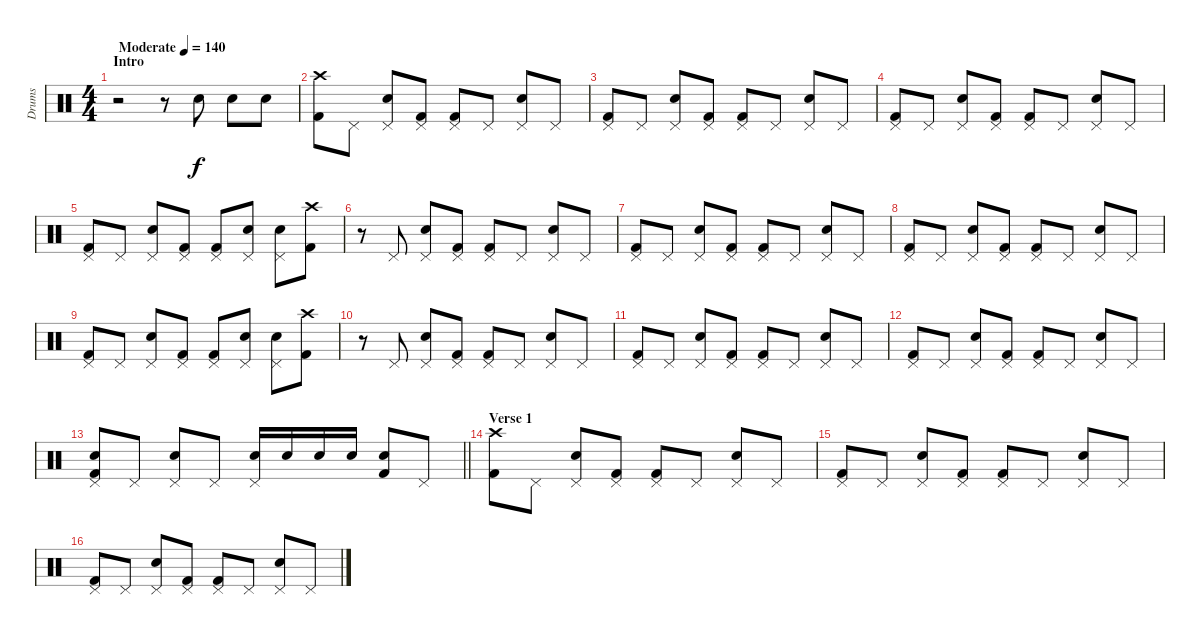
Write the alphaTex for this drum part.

\track ("Drums" "Drums") {instrument percussion}
\staff {score}
\articulation defaults
\ts (4 4)
\section ("" "Intro")
\tempo (140 "Moderate")
\clef neutral
\ks c
r.2{dy f} r.8 "Electric Snare (hit)".8 "Electric Snare (hit)".8 "Electric Snare (hit)".8 |
("Crash high (hit)" "Kick (hit) 2").8 "Pedal Hi-Hat (hit)".8 ("Pedal Hi-Hat (hit)" "Electric Snare (hit)").8 ("Pedal Hi-Hat (hit)" "Kick (hit) 2").8 ("Pedal Hi-Hat (hit)" "Kick (hit) 2").8 "Pedal Hi-Hat (hit)".8 ("Pedal Hi-Hat (hit)" "Electric Snare (hit)").8 "Pedal Hi-Hat (hit)".8 |
("Pedal Hi-Hat (hit)" "Kick (hit) 2").8 "Pedal Hi-Hat (hit)".8 ("Pedal Hi-Hat (hit)" "Electric Snare (hit)").8 ("Pedal Hi-Hat (hit)" "Kick (hit) 2").8 ("Pedal Hi-Hat (hit)" "Kick (hit) 2").8 "Pedal Hi-Hat (hit)".8 ("Pedal Hi-Hat (hit)" "Electric Snare (hit)").8 "Pedal Hi-Hat (hit)".8 |
("Pedal Hi-Hat (hit)" "Kick (hit) 2").8 "Pedal Hi-Hat (hit)".8 ("Pedal Hi-Hat (hit)" "Electric Snare (hit)").8 ("Pedal Hi-Hat (hit)" "Kick (hit) 2").8 ("Pedal Hi-Hat (hit)" "Kick (hit) 2").8 "Pedal Hi-Hat (hit)".8 ("Pedal Hi-Hat (hit)" "Electric Snare (hit)").8 "Pedal Hi-Hat (hit)".8 |
("Pedal Hi-Hat (hit)" "Kick (hit) 2").8 "Pedal Hi-Hat (hit)".8 ("Pedal Hi-Hat (hit)" "Electric Snare (hit)").8 ("Pedal Hi-Hat (hit)" "Kick (hit) 2").8 ("Pedal Hi-Hat (hit)" "Kick (hit) 2").8 ("Pedal Hi-Hat (hit)" "Electric Snare (hit)").8 ("Pedal Hi-Hat (hit)" "Electric Snare (hit)").8 ("Crash high (hit)" "Kick (hit) 2").8 |
r.8 "Pedal Hi-Hat (hit)".8 ("Pedal Hi-Hat (hit)" "Electric Snare (hit)").8 ("Pedal Hi-Hat (hit)" "Kick (hit) 2").8 ("Pedal Hi-Hat (hit)" "Kick (hit) 2").8 "Pedal Hi-Hat (hit)".8 ("Pedal Hi-Hat (hit)" "Electric Snare (hit)").8 "Pedal Hi-Hat (hit)".8 |
("Pedal Hi-Hat (hit)" "Kick (hit) 2").8 "Pedal Hi-Hat (hit)".8 ("Pedal Hi-Hat (hit)" "Electric Snare (hit)").8 ("Pedal Hi-Hat (hit)" "Kick (hit) 2").8 ("Pedal Hi-Hat (hit)" "Kick (hit) 2").8 "Pedal Hi-Hat (hit)".8 ("Pedal Hi-Hat (hit)" "Electric Snare (hit)").8 "Pedal Hi-Hat (hit)".8 |
("Pedal Hi-Hat (hit)" "Kick (hit) 2").8 "Pedal Hi-Hat (hit)".8 ("Pedal Hi-Hat (hit)" "Electric Snare (hit)").8 ("Pedal Hi-Hat (hit)" "Kick (hit) 2").8 ("Pedal Hi-Hat (hit)" "Kick (hit) 2").8 "Pedal Hi-Hat (hit)".8 ("Pedal Hi-Hat (hit)" "Electric Snare (hit)").8 "Pedal Hi-Hat (hit)".8 |
("Pedal Hi-Hat (hit)" "Kick (hit) 2").8 "Pedal Hi-Hat (hit)".8 ("Pedal Hi-Hat (hit)" "Electric Snare (hit)").8 ("Pedal Hi-Hat (hit)" "Kick (hit) 2").8 ("Pedal Hi-Hat (hit)" "Kick (hit) 2").8 ("Pedal Hi-Hat (hit)" "Electric Snare (hit)").8 ("Pedal Hi-Hat (hit)" "Electric Snare (hit)").8 ("Crash high (hit)" "Kick (hit) 2").8 |
r.8 "Pedal Hi-Hat (hit)".8 ("Pedal Hi-Hat (hit)" "Electric Snare (hit)").8 ("Pedal Hi-Hat (hit)" "Kick (hit) 2").8 ("Pedal Hi-Hat (hit)" "Kick (hit) 2").8 "Pedal Hi-Hat (hit)".8 ("Pedal Hi-Hat (hit)" "Electric Snare (hit)").8 "Pedal Hi-Hat (hit)".8 |
("Pedal Hi-Hat (hit)" "Kick (hit) 2").8 "Pedal Hi-Hat (hit)".8 ("Pedal Hi-Hat (hit)" "Electric Snare (hit)").8 ("Pedal Hi-Hat (hit)" "Kick (hit) 2").8 ("Pedal Hi-Hat (hit)" "Kick (hit) 2").8 "Pedal Hi-Hat (hit)".8 ("Pedal Hi-Hat (hit)" "Electric Snare (hit)").8 "Pedal Hi-Hat (hit)".8 |
("Pedal Hi-Hat (hit)" "Kick (hit) 2").8 "Pedal Hi-Hat (hit)".8 ("Pedal Hi-Hat (hit)" "Electric Snare (hit)").8 ("Pedal Hi-Hat (hit)" "Kick (hit) 2").8 ("Pedal Hi-Hat (hit)" "Kick (hit) 2").8 "Pedal Hi-Hat (hit)".8 ("Pedal Hi-Hat (hit)" "Electric Snare (hit)").8 "Pedal Hi-Hat (hit)".8 |
\barLineRight lightlight
("Pedal Hi-Hat (hit)" "Electric Snare (hit)" "Kick (hit) 2").8 "Pedal Hi-Hat (hit)".8 ("Pedal Hi-Hat (hit)" "Electric Snare (hit)").8 "Pedal Hi-Hat (hit)".8 ("Pedal Hi-Hat (hit)" "Electric Snare (hit)").16 "Electric Snare (hit)".16 "Electric Snare (hit)".16 "Electric Snare (hit)".16 ("Electric Snare (hit)" "Kick (hit) 2").8 "Pedal Hi-Hat (hit)".8 |
\section ("" "Verse 1")
("Crash high (hit)" "Kick (hit) 2").8 "Pedal Hi-Hat (hit)".8 ("Pedal Hi-Hat (hit)" "Electric Snare (hit)").8 ("Pedal Hi-Hat (hit)" "Kick (hit) 2").8 ("Pedal Hi-Hat (hit)" "Kick (hit) 2").8 "Pedal Hi-Hat (hit)".8 ("Pedal Hi-Hat (hit)" "Electric Snare (hit)").8 "Pedal Hi-Hat (hit)".8 |
("Pedal Hi-Hat (hit)" "Kick (hit) 2").8 "Pedal Hi-Hat (hit)".8 ("Pedal Hi-Hat (hit)" "Electric Snare (hit)").8 ("Pedal Hi-Hat (hit)" "Kick (hit) 2").8 ("Pedal Hi-Hat (hit)" "Kick (hit) 2").8 "Pedal Hi-Hat (hit)".8 ("Pedal Hi-Hat (hit)" "Electric Snare (hit)").8 "Pedal Hi-Hat (hit)".8 |
("Pedal Hi-Hat (hit)" "Kick (hit) 2").8 "Pedal Hi-Hat (hit)".8 ("Pedal Hi-Hat (hit)" "Electric Snare (hit)").8 ("Pedal Hi-Hat (hit)" "Kick (hit) 2").8 ("Pedal Hi-Hat (hit)" "Kick (hit) 2").8 "Pedal Hi-Hat (hit)".8 ("Pedal Hi-Hat (hit)" "Electric Snare (hit)").8 "Pedal Hi-Hat (hit)".8
